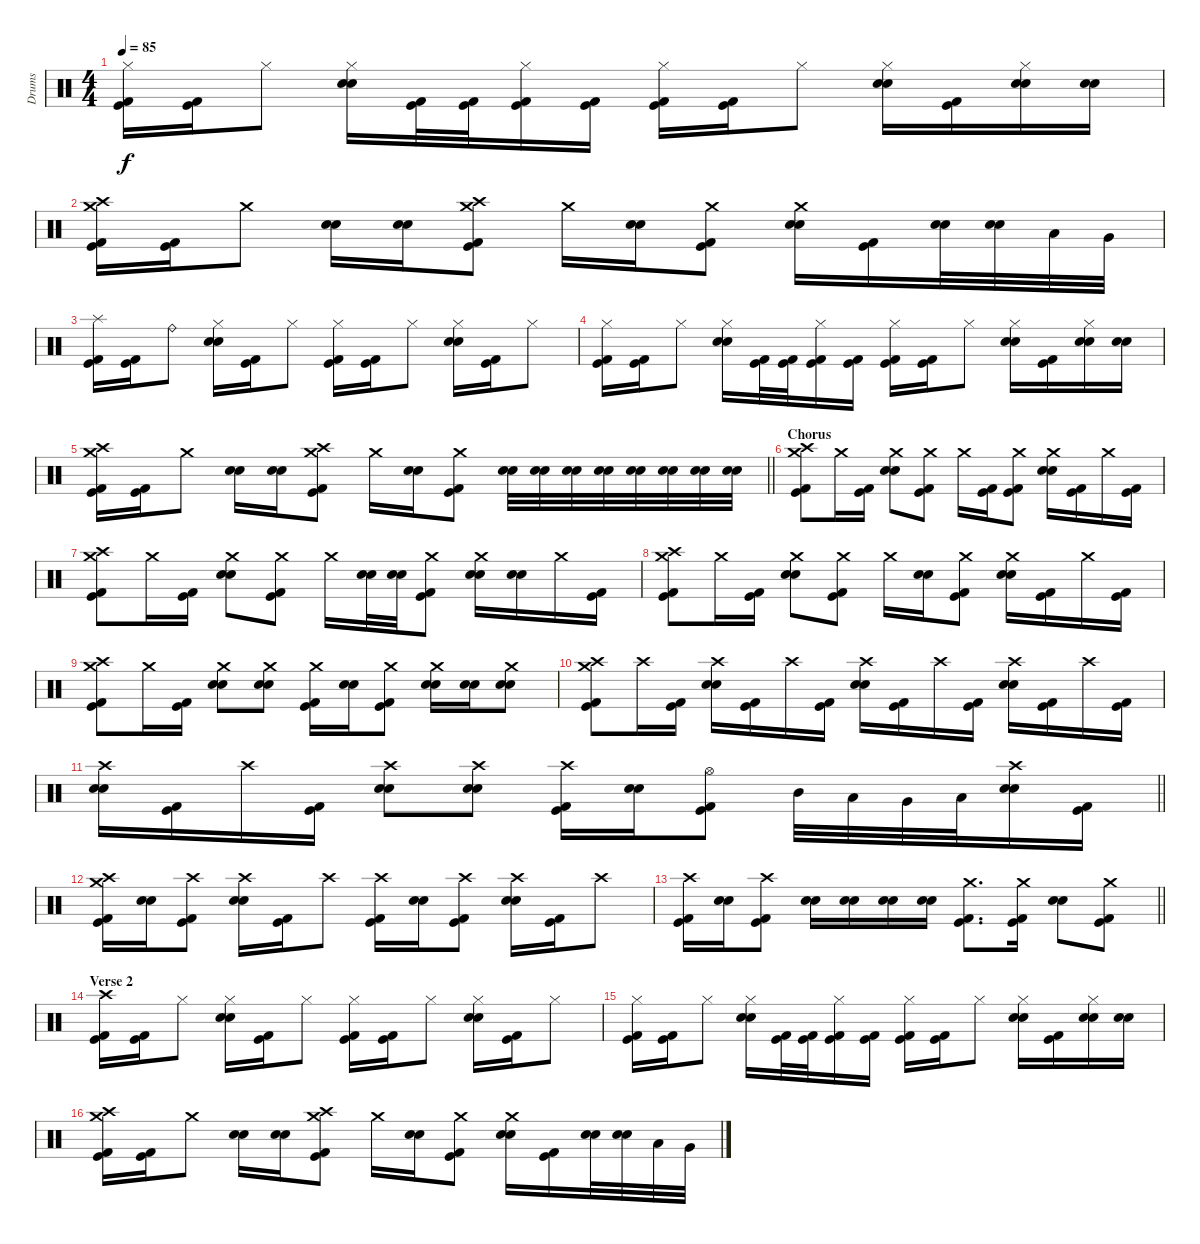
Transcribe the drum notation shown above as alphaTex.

\track ("Drums" "Drums") {instrument percussion}
\staff {score}
\articulation defaults
\ts (4 4)
\tempo 85
\clef neutral
\ks c
("Hi-Hat (closed)" "Kick (hit)" "Kick (hit) 2").16{dy f} ("Kick (hit)" "Kick (hit) 2").16 "Hi-Hat (closed)".8 ("Hi-Hat (closed)" "Electric Snare (hit)" "Snare (hit) 2").16 ("Kick (hit)" "Kick (hit) 2").32 ("Kick (hit)" "Kick (hit) 2").32 ("Hi-Hat (closed)" "Kick (hit)" "Kick (hit) 2").16 ("Kick (hit)" "Kick (hit) 2").16 ("Hi-Hat (closed)" "Kick (hit)" "Kick (hit) 2").16 ("Kick (hit)" "Kick (hit) 2").16 "Hi-Hat (closed)".8 ("Hi-Hat (closed)" "Electric Snare (hit)" "Snare (hit) 2").16 ("Kick (hit)" "Kick (hit) 2").16 ("Hi-Hat (closed)" "Electric Snare (hit)" "Snare (hit) 2").16 ("Electric Snare (hit)" "Snare (hit) 2").16 |
("Crash high (hit)" "Crash medium (hit)" "Kick (hit)" "Kick (hit) 2").16 ("Kick (hit)" "Kick (hit) 2").16 "Crash medium (hit)".8 ("Electric Snare (hit)" "Snare (hit) 2").16 ("Electric Snare (hit)" "Snare (hit) 2").16 ("Crash high (hit)" "Crash medium (hit)" "Kick (hit)" "Kick (hit) 2").8 "Crash medium (hit)".16 ("Electric Snare (hit)" "Snare (hit) 2").16 ("Crash medium (hit)" "Kick (hit)" "Kick (hit) 2").8 ("Crash medium (hit)" "Electric Snare (hit)" "Snare (hit) 2").16 ("Kick (hit)" "Kick (hit) 2").16 ("Electric Snare (hit)" "Snare (hit) 2").32 ("Electric Snare (hit)" "Snare (hit) 2").32 "Low Tom (hit)".32 "Very Low Tom (hit)".32 |
("Splash (hit)" "Kick (hit)" "Kick (hit) 2").16{balance 2} ("Kick (hit)" "Kick (hit) 2").16 "Ride (bell)".8{balance 14} ("Hi-Hat (closed)" "Electric Snare (hit)" "Snare (hit) 2").16{balance 8} ("Kick (hit)" "Kick (hit) 2").16 "Hi-Hat (closed)".8 ("Hi-Hat (closed)" "Kick (hit)" "Kick (hit) 2").16 ("Kick (hit)" "Kick (hit) 2").16 "Hi-Hat (closed)".8 ("Hi-Hat (closed)" "Electric Snare (hit)" "Snare (hit) 2").16 ("Kick (hit)" "Kick (hit) 2").16 "Hi-Hat (closed)".8 |
("Hi-Hat (closed)" "Kick (hit)" "Kick (hit) 2").16 ("Kick (hit)" "Kick (hit) 2").16 "Hi-Hat (closed)".8 ("Hi-Hat (closed)" "Electric Snare (hit)" "Snare (hit) 2").16 ("Kick (hit)" "Kick (hit) 2").32 ("Kick (hit)" "Kick (hit) 2").32 ("Hi-Hat (closed)" "Kick (hit)" "Kick (hit) 2").16 ("Kick (hit)" "Kick (hit) 2").16 ("Hi-Hat (closed)" "Kick (hit)" "Kick (hit) 2").16 ("Kick (hit)" "Kick (hit) 2").16 "Hi-Hat (closed)".8 ("Hi-Hat (closed)" "Electric Snare (hit)" "Snare (hit) 2").16 ("Kick (hit)" "Kick (hit) 2").16 ("Hi-Hat (closed)" "Electric Snare (hit)" "Snare (hit) 2").16 ("Electric Snare (hit)" "Snare (hit) 2").16 |
\barLineRight lightlight
("Crash high (hit)" "Crash medium (hit)" "Kick (hit)" "Kick (hit) 2").16 ("Kick (hit)" "Kick (hit) 2").16 "Crash medium (hit)".8 ("Electric Snare (hit)" "Snare (hit) 2").16 ("Electric Snare (hit)" "Snare (hit) 2").16 ("Crash high (hit)" "Crash medium (hit)" "Kick (hit)" "Kick (hit) 2").8 "Crash medium (hit)".16 ("Electric Snare (hit)" "Snare (hit) 2").16 ("Crash medium (hit)" "Kick (hit)" "Kick (hit) 2").8 ("Electric Snare (hit)" "Snare (hit) 2").32 ("Electric Snare (hit)" "Snare (hit) 2").32 ("Electric Snare (hit)" "Snare (hit) 2").32 ("Electric Snare (hit)" "Snare (hit) 2").32 ("Electric Snare (hit)" "Snare (hit) 2").32 ("Electric Snare (hit)" "Snare (hit) 2").32 ("Electric Snare (hit)" "Snare (hit) 2").32 ("Electric Snare (hit)" "Snare (hit) 2").32 |
\section ("" "Chorus")
("Crash high (hit)" "Crash medium (hit)" "Kick (hit)" "Kick (hit) 2").8 "Crash medium (hit)".16 ("Kick (hit)" "Kick (hit) 2").16 ("Crash medium (hit)" "Electric Snare (hit)" "Snare (hit) 2").8 ("Crash medium (hit)" "Kick (hit)" "Kick (hit) 2").8 "Crash medium (hit)".16 ("Kick (hit)" "Kick (hit) 2").16 ("Crash medium (hit)" "Kick (hit)" "Kick (hit) 2").8 ("Crash medium (hit)" "Electric Snare (hit)" "Snare (hit) 2").16 ("Kick (hit)" "Kick (hit) 2").16 "Crash medium (hit)".16 ("Kick (hit)" "Kick (hit) 2").16 |
("Crash high (hit)" "Crash medium (hit)" "Kick (hit)" "Kick (hit) 2").8 "Crash medium (hit)".16 ("Kick (hit)" "Kick (hit) 2").16 ("Crash medium (hit)" "Electric Snare (hit)" "Snare (hit) 2").8 ("Crash medium (hit)" "Kick (hit)" "Kick (hit) 2").8 "Crash medium (hit)".16 ("Electric Snare (hit)" "Snare (hit) 2").32 ("Electric Snare (hit)" "Snare (hit) 2").32 ("Crash medium (hit)" "Kick (hit)" "Kick (hit) 2").8 ("Crash medium (hit)" "Electric Snare (hit)" "Snare (hit) 2").16 ("Electric Snare (hit)" "Snare (hit) 2").16 "Crash medium (hit)".16 ("Kick (hit)" "Kick (hit) 2").16 |
("Crash high (hit)" "Crash medium (hit)" "Kick (hit)" "Kick (hit) 2").8 "Crash medium (hit)".16 ("Kick (hit)" "Kick (hit) 2").16 ("Crash medium (hit)" "Electric Snare (hit)" "Snare (hit) 2").8 ("Crash medium (hit)" "Kick (hit)" "Kick (hit) 2").8 "Crash medium (hit)".16 ("Electric Snare (hit)" "Snare (hit) 2").16 ("Crash medium (hit)" "Kick (hit)" "Kick (hit) 2").8 ("Crash medium (hit)" "Electric Snare (hit)" "Snare (hit) 2").16 ("Kick (hit)" "Kick (hit) 2").16 "Crash medium (hit)".16 ("Kick (hit)" "Kick (hit) 2").16 |
("Crash high (hit)" "Crash medium (hit)" "Kick (hit)" "Kick (hit) 2").8 "Crash medium (hit)".16 ("Kick (hit)" "Kick (hit) 2").16 ("Crash medium (hit)" "Electric Snare (hit)" "Snare (hit) 2").8 ("Crash medium (hit)" "Electric Snare (hit)" "Snare (hit) 2").8 ("Crash medium (hit)" "Kick (hit)" "Kick (hit) 2").16 ("Electric Snare (hit)" "Snare (hit) 2").16 ("Crash medium (hit)" "Kick (hit)" "Kick (hit) 2").8 ("Crash medium (hit)" "Electric Snare (hit)" "Snare (hit) 2").16 ("Electric Snare (hit)" "Snare (hit) 2").16 ("Crash medium (hit)" "Electric Snare (hit)" "Snare (hit) 2").8 |
("Crash high (hit)" "Crash medium (hit)" "Kick (hit)" "Kick (hit) 2").8 "Crash high (hit)".16 ("Kick (hit)" "Kick (hit) 2").16 ("Crash high (hit)" "Electric Snare (hit)" "Snare (hit) 2").16 ("Kick (hit)" "Kick (hit) 2").16 "Crash high (hit)".16 ("Kick (hit)" "Kick (hit) 2").16 ("Crash high (hit)" "Electric Snare (hit)" "Snare (hit) 2").16 ("Kick (hit)" "Kick (hit) 2").16 "Crash high (hit)".16 ("Kick (hit)" "Kick (hit) 2").16 ("Crash high (hit)" "Electric Snare (hit)" "Snare (hit) 2").16 ("Kick (hit)" "Kick (hit) 2").16 "Crash high (hit)".16 ("Kick (hit)" "Kick (hit) 2").16 |
\barLineRight lightlight
("Crash high (hit)" "Electric Snare (hit)" "Snare (hit) 2").16 ("Kick (hit)" "Kick (hit) 2").16 "Crash high (hit)".16 ("Kick (hit)" "Kick (hit) 2").16 ("Crash high (hit)" "Electric Snare (hit)" "Snare (hit) 2").8 ("Crash high (hit)" "Electric Snare (hit)" "Snare (hit) 2").8 ("Crash high (hit)" "Kick (hit)" "Kick (hit) 2").16 ("Electric Snare (hit)" "Snare (hit) 2").16 ("Hi-Hat (open)" "Kick (hit)" "Kick (hit) 2").8 "Mid Tom (hit)".32 "Low Tom (hit)".32 "Very Low Tom (hit)".32 "Low Floor Tom (hit)".32 ("Crash high (hit)" "Electric Snare (hit)" "Snare (hit) 2").16 ("Kick (hit)" "Kick (hit) 2").16 |
\section ("" " ")
("Crash high (hit)" "Crash medium (hit)" "Kick (hit)" "Kick (hit) 2").16 ("Electric Snare (hit)" "Snare (hit) 2").16 ("Crash high (hit)" "Kick (hit)" "Kick (hit) 2").8 ("Crash high (hit)" "Electric Snare (hit)" "Snare (hit) 2").16 ("Kick (hit)" "Kick (hit) 2").16 "Crash high (hit)".8 ("Crash high (hit)" "Kick (hit)" "Kick (hit) 2").16 ("Electric Snare (hit)" "Snare (hit) 2").16 ("Crash high (hit)" "Kick (hit)" "Kick (hit) 2").8 ("Crash high (hit)" "Electric Snare (hit)" "Snare (hit) 2").16 ("Kick (hit)" "Kick (hit) 2").16 "Crash high (hit)".8 |
\barLineRight lightlight
("Crash high (hit)" "Kick (hit)" "Kick (hit) 2").16 ("Electric Snare (hit)" "Snare (hit) 2").16 ("Crash high (hit)" "Kick (hit)" "Kick (hit) 2").8 ("Electric Snare (hit)" "Snare (hit) 2").16 ("Electric Snare (hit)" "Snare (hit) 2").16 ("Electric Snare (hit)" "Snare (hit) 2").16 ("Electric Snare (hit)" "Snare (hit) 2").16 ("Crash medium (hit)" "Kick (hit)" "Kick (hit) 2").8{d} ("Crash medium (hit)" "Kick (hit)" "Kick (hit) 2").16 ("Electric Snare (hit)" "Snare (hit) 2").8 ("Crash medium (hit)" "Kick (hit)" "Kick (hit) 2").8 |
\section ("" "Verse 2")
("Crash high (hit)" "Kick (hit)" "Kick (hit) 2").16 ("Kick (hit)" "Kick (hit) 2").16 "Hi-Hat (closed)".8 ("Hi-Hat (closed)" "Electric Snare (hit)" "Snare (hit) 2").16 ("Kick (hit)" "Kick (hit) 2").16 "Hi-Hat (closed)".8 ("Hi-Hat (closed)" "Kick (hit)" "Kick (hit) 2").16 ("Kick (hit)" "Kick (hit) 2").16 "Hi-Hat (closed)".8 ("Hi-Hat (closed)" "Electric Snare (hit)" "Snare (hit) 2").16 ("Kick (hit)" "Kick (hit) 2").16 "Hi-Hat (closed)".8 |
("Hi-Hat (closed)" "Kick (hit)" "Kick (hit) 2").16 ("Kick (hit)" "Kick (hit) 2").16 "Hi-Hat (closed)".8 ("Hi-Hat (closed)" "Electric Snare (hit)" "Snare (hit) 2").16 ("Kick (hit)" "Kick (hit) 2").32 ("Kick (hit)" "Kick (hit) 2").32 ("Hi-Hat (closed)" "Kick (hit)" "Kick (hit) 2").16 ("Kick (hit)" "Kick (hit) 2").16 ("Hi-Hat (closed)" "Kick (hit)" "Kick (hit) 2").16 ("Kick (hit)" "Kick (hit) 2").16 "Hi-Hat (closed)".8 ("Hi-Hat (closed)" "Electric Snare (hit)" "Snare (hit) 2").16 ("Kick (hit)" "Kick (hit) 2").16 ("Hi-Hat (closed)" "Electric Snare (hit)" "Snare (hit) 2").16 ("Electric Snare (hit)" "Snare (hit) 2").16 |
("Crash high (hit)" "Crash medium (hit)" "Kick (hit)" "Kick (hit) 2").16 ("Kick (hit)" "Kick (hit) 2").16 "Crash medium (hit)".8 ("Electric Snare (hit)" "Snare (hit) 2").16 ("Electric Snare (hit)" "Snare (hit) 2").16 ("Crash high (hit)" "Crash medium (hit)" "Kick (hit)" "Kick (hit) 2").8 "Crash medium (hit)".16 ("Electric Snare (hit)" "Snare (hit) 2").16 ("Crash medium (hit)" "Kick (hit)" "Kick (hit) 2").8 ("Crash medium (hit)" "Electric Snare (hit)" "Snare (hit) 2").16 ("Kick (hit)" "Kick (hit) 2").16 ("Electric Snare (hit)" "Snare (hit) 2").32 ("Electric Snare (hit)" "Snare (hit) 2").32 "Low Tom (hit)".32 "Very Low Tom (hit)".32
